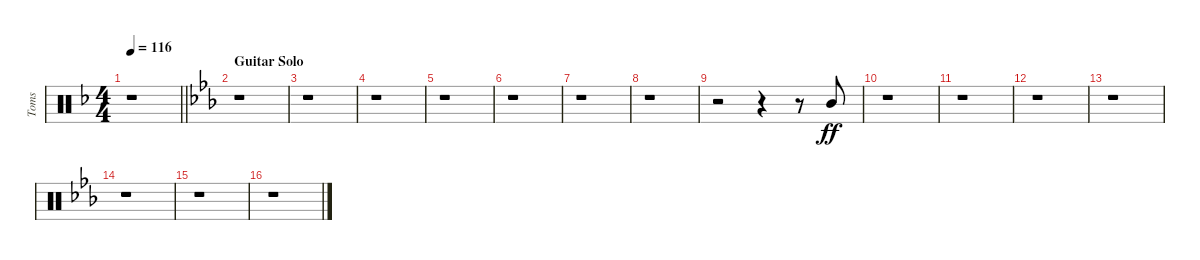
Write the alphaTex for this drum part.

\track ("Toms" "Toms") {instrument percussion}
\staff {score}
\articulation defaults
\ts (4 4)
\tempo 116
\clef neutral
\barLineRight lightlight
\ks f
r.1{dy ff} |
\section ("" "Guitar Solo")
\ks eb
r.1 |
r.1 |
r.1 |
r.1 |
r.1 |
r.1 |
r.1 |
r.2 r.4{beam merge} r.8{balance 11} "Mid Tom (hit)".8{beam Up} |
r.1 |
r.1 |
r.1 |
r.1 |
r.1 |
r.1 |
r.1
